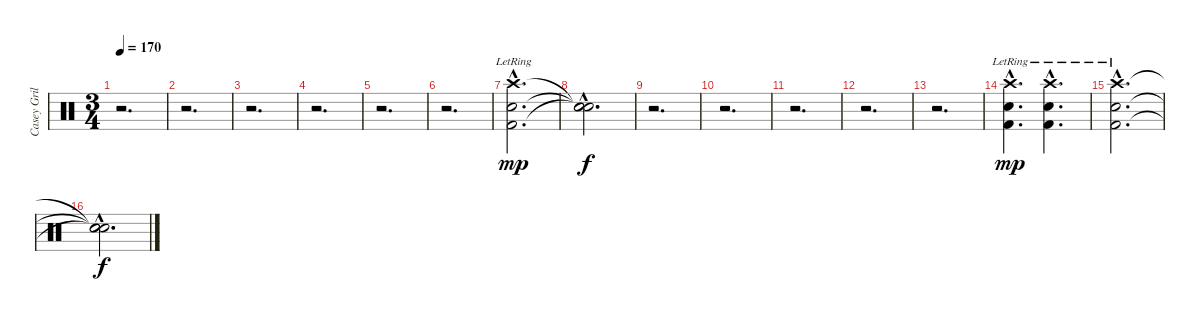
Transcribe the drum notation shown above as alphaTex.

\track ("Casey Grillo" "Casey Gril") {instrument percussion}
\staff {score}
\articulation defaults
\ts (3 4)
\tempo 170
\clef neutral
\ks c
r.2{d dy f} |
r.2{d} |
r.2{d} |
r.2{d} |
r.2{d} |
r.2{d} |
("Snare (hit) 2"{hac lr} "Kick (hit) 2"{hac lr} "Crash high (hit)"{hac lr}).2{d dy mp} |
("Snare (hit)"{hac t} "Snare (hit)"{hac t} "Snare (hit)"{hac t}).2{d dy f} |
r.2{d} |
r.2{d} |
r.2{d} |
r.2{d} |
r.2{d} |
("Snare (hit) 2"{hac lr} "Kick (hit) 2"{hac lr} "Crash high (hit)"{hac lr}).4{d dy mp} ("Snare (hit) 2"{hac lr} "Kick (hit) 2"{hac lr} "Crash high (hit)"{hac lr}).4{d} |
("Snare (hit) 2"{hac lr} "Kick (hit) 2"{hac lr} "Crash high (hit)"{hac lr}).2{d} |
("Snare (hit)"{hac t} "Snare (hit)"{hac t} "Snare (hit)"{hac t}).2{d dy f}
